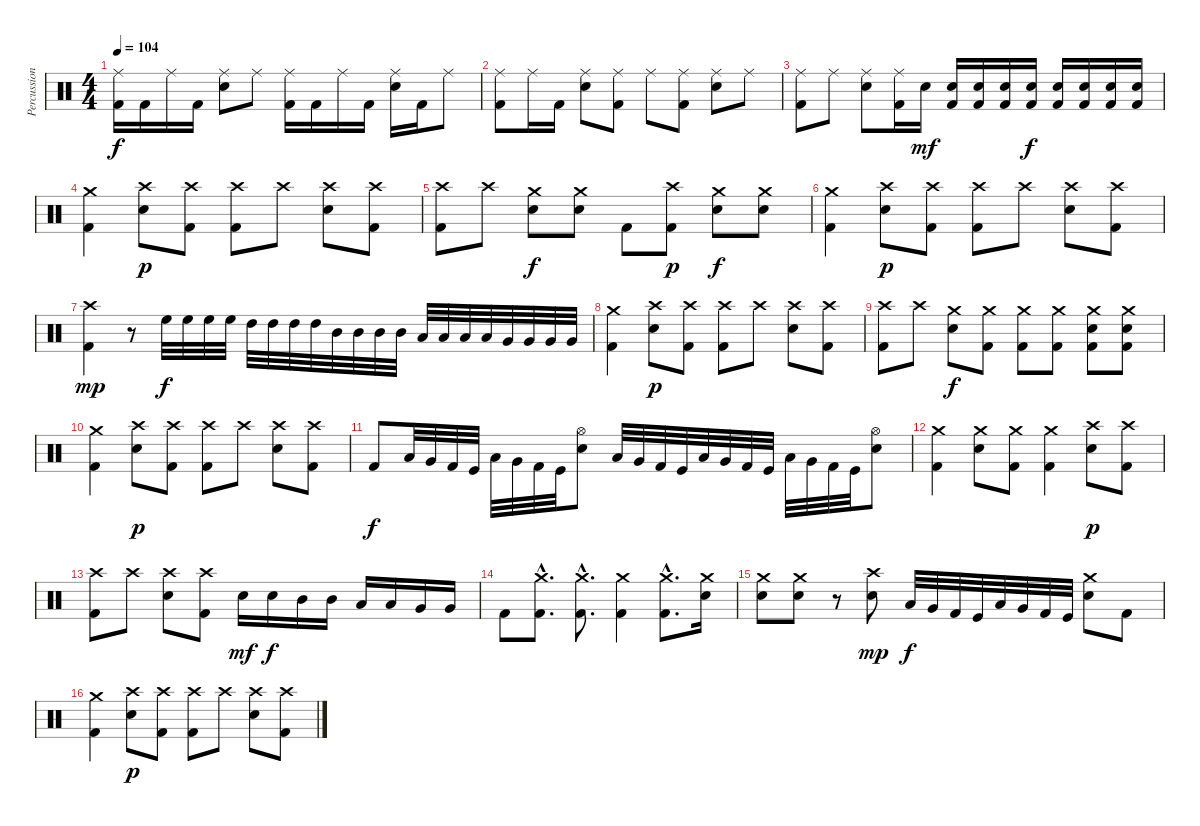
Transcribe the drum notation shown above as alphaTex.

\track ("Percussion" "Percussion") {instrument percussion}
\staff {score}
\articulation defaults
\ts (4 4)
\tempo 104
\clef neutral
\ks c
("Kick (hit) 2" "Ride (middle)").16{dy f} "Kick (hit) 2".16 "Ride (middle)".16 "Kick (hit) 2".16 ("Electric Snare (hit)" "Ride (middle)").8 "Ride (middle)".8 ("Kick (hit) 2" "Ride (middle)").16 "Kick (hit) 2".16 "Ride (middle)".16 "Kick (hit) 2".16 ("Electric Snare (hit)" "Ride (middle)").16 "Kick (hit) 2".16 "Ride (middle)".8 |
("Kick (hit) 2" "Ride (middle)").8 "Ride (middle)".16 "Kick (hit) 2".16 ("Electric Snare (hit)" "Ride (middle)").8 ("Kick (hit) 2" "Ride (middle)").8 "Ride (middle)".8 ("Kick (hit) 2" "Ride (middle)").8 ("Electric Snare (hit)" "Ride (middle)").8 "Ride (middle)".8 |
("Kick (hit) 2" "Ride (middle)").8 "Ride (middle)".8 ("Electric Snare (hit)" "Ride (middle)").8 ("Kick (hit) 2" "Ride (middle)").16 "Electric Snare (hit)".16{dy mf} ("Kick (hit) 2" "Electric Snare (hit)").16 ("Kick (hit) 2" "Electric Snare (hit)").16 ("Kick (hit) 2" "Electric Snare (hit)").16 ("Kick (hit) 2" "Electric Snare (hit)").16{dy f} ("Kick (hit) 2" "Electric Snare (hit)").16 ("Kick (hit) 2" "Electric Snare (hit)").16 ("Kick (hit) 2" "Electric Snare (hit)").16 ("Kick (hit) 2" "Electric Snare (hit)").16 |
("Kick (hit) 2" "Crash medium (hit)").4 ("Electric Snare (hit)" "Crash high (hit)").8{dy p} ("Kick (hit) 2" "Crash high (hit)").8 ("Kick (hit) 2" "Crash high (hit)").8 "Crash high (hit)".8 ("Electric Snare (hit)" "Crash high (hit)").8 ("Kick (hit) 2" "Crash high (hit)").8 |
("Kick (hit) 2" "Crash high (hit)").8 "Crash high (hit)".8 ("Electric Snare (hit)" "Crash medium (hit)").8{dy f} ("Electric Snare (hit)" "Crash medium (hit)").8 "Kick (hit) 2".8 ("Kick (hit) 2" "Crash high (hit)").8{dy p} ("Electric Snare (hit)" "Crash medium (hit)").8{dy f} ("Electric Snare (hit)" "Crash medium (hit)").8 |
("Kick (hit) 2" "Crash medium (hit)").4 ("Electric Snare (hit)" "Crash high (hit)").8{dy p} ("Kick (hit) 2" "Crash high (hit)").8 ("Kick (hit) 2" "Crash high (hit)").8 "Crash high (hit)".8 ("Electric Snare (hit)" "Crash high (hit)").8 ("Kick (hit) 2" "Crash high (hit)").8 |
("Kick (hit) 2" "Crash high (hit)").4{dy mp} r.8 "High Floor Tom (hit)".32{dy f} "High Floor Tom (hit)".32 "High Floor Tom (hit)".32 "High Floor Tom (hit)".32 "High Tom (hit)".32 "High Tom (hit)".32 "High Tom (hit)".32 "High Tom (hit)".32 "Mid Tom (hit)".32 "Mid Tom (hit)".32 "Mid Tom (hit)".32 "Mid Tom (hit)".32 "Low Tom (hit)".32 "Low Tom (hit)".32 "Low Tom (hit)".32 "Low Tom (hit)".32 "Very Low Tom (hit)".32 "Very Low Tom (hit)".32 "Very Low Tom (hit)".32 "Very Low Tom (hit)".32 |
("Kick (hit) 2" "Crash medium (hit)").4 ("Electric Snare (hit)" "Crash high (hit)").8{dy p} ("Kick (hit) 2" "Crash high (hit)").8 ("Kick (hit) 2" "Crash high (hit)").8 "Crash high (hit)".8 ("Electric Snare (hit)" "Crash high (hit)").8 ("Kick (hit) 2" "Crash high (hit)").8 |
("Kick (hit) 2" "Crash high (hit)").8 "Crash high (hit)".8 ("Electric Snare (hit)" "Crash medium (hit)").8{dy f} ("Kick (hit) 2" "Crash medium (hit)").8 ("Kick (hit) 2" "Crash medium (hit)").8 ("Kick (hit) 2" "Crash medium (hit)").8 ("Kick (hit) 2" "Electric Snare (hit)" "Crash medium (hit)").8 ("Kick (hit) 2" "Electric Snare (hit)" "Crash medium (hit)").8 |
("Kick (hit) 2" "Crash medium (hit)").4 ("Electric Snare (hit)" "Crash high (hit)").8{dy p} ("Kick (hit) 2" "Crash high (hit)").8 ("Kick (hit) 2" "Crash high (hit)").8 "Crash high (hit)".8 ("Electric Snare (hit)" "Crash high (hit)").8 ("Kick (hit) 2" "Crash high (hit)").8 |
"Kick (hit) 2".8{dy f} "Low Floor Tom (hit)".32 "Very Low Tom (hit)".32 "Kick (hit) 2".32 "Kick (hit)".32 "Low Floor Tom (hit)".32 "Very Low Tom (hit)".32 "Kick (hit) 2".32 "Kick (hit)".32 ("Electric Snare (hit)" "Hi-Hat (open)").8 "Low Floor Tom (hit)".32 "Very Low Tom (hit)".32 "Kick (hit) 2".32 "Kick (hit)".32 "Low Floor Tom (hit)".32 "Very Low Tom (hit)".32 "Kick (hit) 2".32 "Kick (hit)".32 "Low Floor Tom (hit)".32 "Very Low Tom (hit)".32 "Kick (hit) 2".32 "Kick (hit)".32 ("Electric Snare (hit)" "Hi-Hat (open)").8 |
("Kick (hit) 2" "Crash medium (hit)").4 ("Electric Snare (hit)" "Crash medium (hit)").8 ("Kick (hit) 2" "Crash medium (hit)").8 ("Kick (hit) 2" "Crash medium (hit)").4 ("Electric Snare (hit)" "Crash high (hit)").8{dy p} ("Kick (hit) 2" "Crash high (hit)").8 |
("Kick (hit) 2" "Crash high (hit)").8 "Crash high (hit)".8 ("Electric Snare (hit)" "Crash high (hit)").8 ("Kick (hit) 2" "Crash high (hit)").8 "Electric Snare (hit)".16{dy mf} "Electric Snare (hit)".16{dy f} "Mid Tom (hit)".16 "Mid Tom (hit)".16 "Low Tom (hit)".16 "Low Tom (hit)".16 "Very Low Tom (hit)".16 "Very Low Tom (hit)".16 |
"Kick (hit) 2".8 ("Kick (hit) 2"{hac} "Crash medium (hit)"{hac}).8{d} ("Kick (hit) 2"{hac} "Crash medium (hit)"{hac}).8{d} ("Kick (hit) 2" "Crash medium (hit)").4 ("Kick (hit) 2"{hac} "Crash medium (hit)"{hac}).8{d} ("Electric Snare (hit)" "Crash medium (hit)").16 |
("Electric Snare (hit)" "Crash medium (hit)").8 ("Electric Snare (hit)" "Crash medium (hit)").8 r.8 ("Electric Snare (hit)" "Crash high (hit)").8{dy mp} "Low Floor Tom (hit)".32{dy f} "Very Low Tom (hit)".32 "Kick (hit) 2".32 "Kick (hit)".32 "Low Floor Tom (hit)".32 "Very Low Tom (hit)".32 "Kick (hit) 2".32 "Kick (hit)".32 ("Electric Snare (hit)" "Crash medium (hit)").8 "Kick (hit) 2".8 |
("Kick (hit) 2" "Crash medium (hit)").4 ("Electric Snare (hit)" "Crash high (hit)").8{dy p} ("Kick (hit) 2" "Crash high (hit)").8 ("Kick (hit) 2" "Crash high (hit)").8 "Crash high (hit)".8 ("Electric Snare (hit)" "Crash high (hit)").8 ("Kick (hit) 2" "Crash high (hit)").8
